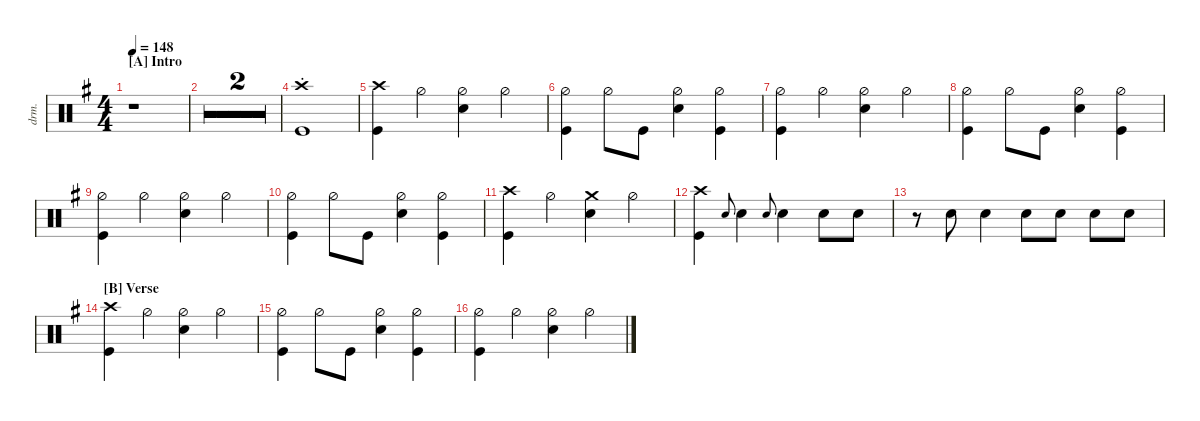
\defaultSystemsLayout 4
\hideDynamics
\bracketExtendMode nobrackets
\otherSystemsTrackNameOrientation horizontal
\track ("Drums" "drm.") {multiBarRest instrument percussion}
\staff
\articulation defaults
\ts (4 4)
\section ("A" "Intro")
\tempo 148
\clef neutral
\ks eminor
r.1{dy mf beam Down} |
r.1{beam Down} |
r.1{beam Down} |
("Kick (hit)"{acc forcenatural} "Crash high (hit)"{st acc forcenatural}).1{beam Down} |
("Kick (hit)"{acc forcenatural} "Crash high (hit)"{acc forcenatural}).4{beam Down} "Hi-Hat (half)"{acc forcenatural}.4{beam Down} ("Snare (hit) 2"{acc forcenatural} "Hi-Hat (half)"{acc forcenatural}).4{beam Down} "Hi-Hat (half)"{acc forcenatural}.4{beam Down} |
("Kick (hit)"{acc forcenatural} "Hi-Hat (half)"{acc forcenatural}).4{beam Down} "Hi-Hat (half)"{acc forcenatural}.8{beam Down} "Kick (hit)"{acc forcenatural}.8{beam Down} ("Hi-Hat (half)"{acc forcenatural} "Snare (hit) 2"{acc forcenatural}).4{beam Down} ("Kick (hit)"{acc forcenatural} "Hi-Hat (half)"{acc forcenatural}).4{beam Down} |
("Kick (hit)"{acc forcenatural} "Hi-Hat (half)"{acc forcenatural}).4{beam Down} "Hi-Hat (half)"{acc forcenatural}.4{beam Down} ("Snare (hit) 2"{acc forcenatural} "Hi-Hat (half)"{acc forcenatural}).4{beam Down} "Hi-Hat (half)"{acc forcenatural}.4{beam Down} |
("Kick (hit)"{acc forcenatural} "Hi-Hat (half)"{acc forcenatural}).4{beam Down} "Hi-Hat (half)"{acc forcenatural}.8{beam Down} "Kick (hit)"{acc forcenatural}.8{beam Down} ("Hi-Hat (half)"{acc forcenatural} "Snare (hit) 2"{acc forcenatural}).4{beam Down} ("Kick (hit)"{acc forcenatural} "Hi-Hat (half)"{acc forcenatural}).4{beam Down} |
("Kick (hit)"{acc forcenatural} "Hi-Hat (half)"{acc forcenatural}).4{beam Down} "Hi-Hat (half)"{acc forcenatural}.4{beam Down} ("Snare (hit) 2"{acc forcenatural} "Hi-Hat (half)"{acc forcenatural}).4{beam Down} "Hi-Hat (half)"{acc forcenatural}.4{beam Down} |
("Kick (hit)"{acc forcenatural} "Hi-Hat (half)"{acc forcenatural}).4{beam Down} "Hi-Hat (half)"{acc forcenatural}.8{beam Down} "Kick (hit)"{acc forcenatural}.8{beam Down} ("Hi-Hat (half)"{acc forcenatural} "Snare (hit) 2"{acc forcenatural}).4{beam Down} ("Kick (hit)"{acc forcenatural} "Hi-Hat (half)"{acc forcenatural}).4{beam Down} |
("Kick (hit)"{acc forcenatural} "Crash high (hit)"{acc forcenatural}).4{beam Down} "Hi-Hat (half)"{acc forcenatural}.4{beam Down} ("Snare (hit) 2"{acc forcenatural} "Crash medium (hit)"{acc forcenatural}).4{beam Down} "Hi-Hat (half)"{acc forcenatural}.4{beam Down} |
("Kick (hit)"{acc forcenatural} "Crash high (hit)"{acc forcenatural}).4{beam Down} "Snare (hit) 2"{acc forcenatural}.8{gr onbeat beam Up} "Snare (hit) 2"{acc forcenatural}.4{beam Down} "Snare (hit) 2"{acc forcenatural}.8{gr onbeat beam Up} "Snare (hit) 2"{acc forcenatural}.4{beam Down} "Snare (hit) 2"{acc forcenatural}.8{beam Down} "Snare (hit) 2"{acc forcenatural}.8{beam Down} |
r.8{beam Down} "Snare (hit) 2"{acc forcenatural}.8{beam Down} "Snare (hit) 2"{acc forcenatural}.4{beam Down} "Snare (hit) 2"{acc forcenatural}.8{beam Down} "Snare (hit) 2"{acc forcenatural}.8{beam Down} "Snare (hit) 2"{acc forcenatural}.8{beam Down} "Snare (hit) 2"{acc forcenatural}.8{beam Down} |
\section ("B" "Verse")
("Kick (hit)"{acc forcenatural} "Crash high (hit)"{acc forcenatural}).4{beam Down} "Hi-Hat (half)"{acc forcenatural}.4{beam Down} ("Snare (hit) 2"{acc forcenatural} "Hi-Hat (half)"{acc forcenatural}).4{beam Down} "Hi-Hat (half)"{acc forcenatural}.4{beam Down} |
("Kick (hit)"{acc forcenatural} "Hi-Hat (half)"{acc forcenatural}).4{beam Down} "Hi-Hat (half)"{acc forcenatural}.8{beam Down} "Kick (hit)"{acc forcenatural}.8{beam Down} ("Hi-Hat (half)"{acc forcenatural} "Snare (hit) 2"{acc forcenatural}).4{beam Down} ("Kick (hit)"{acc forcenatural} "Hi-Hat (half)"{acc forcenatural}).4{beam Down} |
("Kick (hit)"{acc forcenatural} "Hi-Hat (half)"{acc forcenatural}).4{beam Down} "Hi-Hat (half)"{acc forcenatural}.4{beam Down} ("Snare (hit) 2"{acc forcenatural} "Hi-Hat (half)"{acc forcenatural}).4{beam Down} "Hi-Hat (half)"{acc forcenatural}.4{beam Down}
